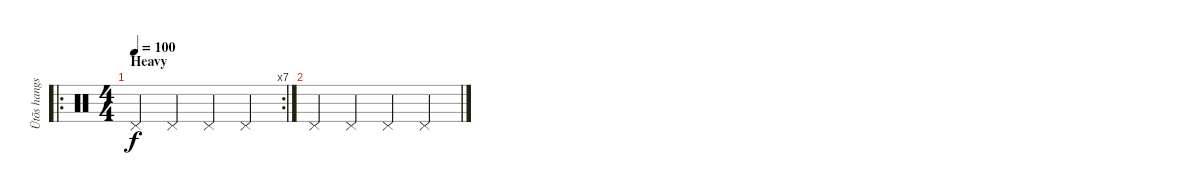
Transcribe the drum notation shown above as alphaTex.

\track ("Ütõs hangszer" "Ütõs hangs") {instrument percussion}
\staff {score}
\articulation defaults
\ro
\rc 7
\ts (4 4)
\section ("" "Heavy")
\tempo 100
\clef neutral
\ks c "Pedal Hi-Hat (hit)".4{dy f} "Pedal Hi-Hat (hit)".4 "Pedal Hi-Hat (hit)".4 "Pedal Hi-Hat (hit)".4
|
"Pedal Hi-Hat (hit)".4 "Pedal Hi-Hat (hit)".4 "Pedal Hi-Hat (hit)".4 "Pedal Hi-Hat (hit)".4
